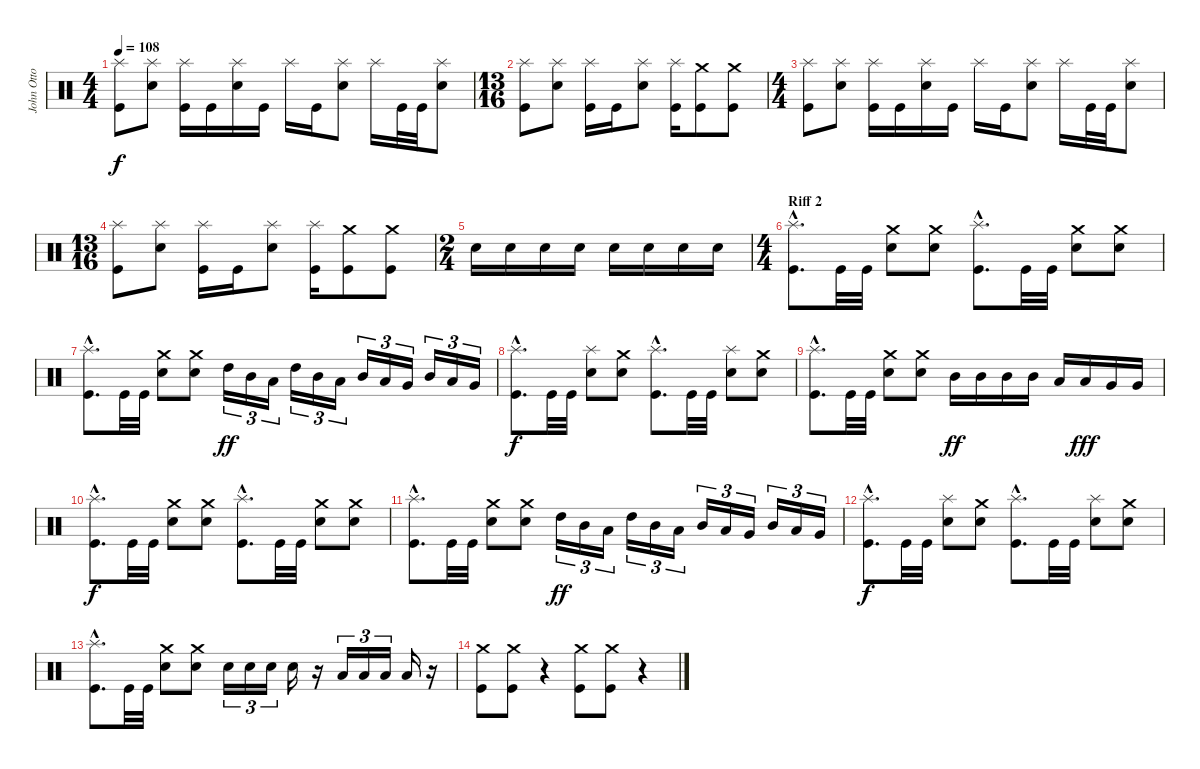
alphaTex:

\track ("John Otto" "John Otto") {instrument percussion}
\staff {score}
\articulation defaults
\ts (4 4)
\tempo 108
\clef neutral
\ks c
("Splash (hit)" "Kick (hit)").8{dy f} ("Splash (hit)" "Electric Snare (hit)").8 ("Splash (hit)" "Kick (hit)").16 "Kick (hit)".16 ("Splash (hit)" "Electric Snare (hit)").16 "Kick (hit)".16 "Splash (hit)".16 "Kick (hit)".16 ("Splash (hit)" "Electric Snare (hit)").8 "Splash (hit)".16 "Kick (hit)".32 "Kick (hit)".32 ("Splash (hit)" "Electric Snare (hit)").8 |
\ts (13 16)
("Splash (hit)" "Kick (hit)").8 ("Splash (hit)" "Electric Snare (hit)").8 ("Splash (hit)" "Kick (hit)").16 "Kick (hit)".16 ("Splash (hit)" "Electric Snare (hit)").8 ("Splash (hit)" "Kick (hit)").16 ("Crash medium (hit)" "Kick (hit)").8 ("Crash medium (hit)" "Kick (hit)").8 |
\ts (4 4)
("Splash (hit)" "Kick (hit)").8 ("Splash (hit)" "Electric Snare (hit)").8 ("Splash (hit)" "Kick (hit)").16 "Kick (hit)".16 ("Splash (hit)" "Electric Snare (hit)").16 "Kick (hit)".16 "Splash (hit)".16 "Kick (hit)".16 ("Splash (hit)" "Electric Snare (hit)").8 "Splash (hit)".16 "Kick (hit)".32 "Kick (hit)".32 ("Splash (hit)" "Electric Snare (hit)").8 |
\ts (13 16)
("Splash (hit)" "Kick (hit)").8 ("Splash (hit)" "Electric Snare (hit)").8 ("Splash (hit)" "Kick (hit)").16 "Kick (hit)".16 ("Splash (hit)" "Electric Snare (hit)").8 ("Splash (hit)" "Kick (hit)").16 ("Crash medium (hit)" "Kick (hit)").8 ("Crash medium (hit)" "Kick (hit)").8 |
\ts (2 4)
"Electric Snare (hit)".16 "Electric Snare (hit)".16 "Electric Snare (hit)".16 "Electric Snare (hit)".16 "Electric Snare (hit)".16 "Electric Snare (hit)".16 "Electric Snare (hit)".16 "Electric Snare (hit)".16 |
\ts (4 4)
\section ("" "Riff 2")
("Splash (hit)"{hac} "Kick (hit)"{hac}).8{d} "Kick (hit)".32 "Kick (hit)".32 ("Crash medium (hit)" "Electric Snare (hit)").8 ("Crash medium (hit)" "Electric Snare (hit)").8 ("Splash (hit)"{hac} "Kick (hit)"{hac}).8{d} "Kick (hit)".32 "Kick (hit)".32 ("Crash medium (hit)" "Electric Snare (hit)").8 ("Crash medium (hit)" "Electric Snare (hit)").8 |
("Splash (hit)"{hac} "Kick (hit)"{hac}).8{d} "Kick (hit)".32 "Kick (hit)".32 ("Crash medium (hit)" "Electric Snare (hit)").8 ("Crash medium (hit)" "Electric Snare (hit)").8 "High Tom (hit)".16{tu (3 2) dy ff} "Mid Tom (hit)".16{tu (3 2)} "Low Tom (hit)".16{tu (3 2)} "High Tom (hit)".16{tu (3 2)} "Mid Tom (hit)".16{tu (3 2)} "Low Tom (hit)".16{tu (3 2)} "Mid Tom (hit)".16{tu (3 2)} "Low Tom (hit)".16{tu (3 2)} "Very Low Tom (hit)".16{tu (3 2)} "Mid Tom (hit)".16{tu (3 2)} "Low Tom (hit)".16{tu (3 2)} "Very Low Tom (hit)".16{tu (3 2)} |
("Splash (hit)"{hac} "Kick (hit)"{hac}).8{d dy f} "Kick (hit)".32 "Kick (hit)".32 ("Splash (hit)" "Electric Snare (hit)").8 ("Crash medium (hit)" "Electric Snare (hit)").8 ("Splash (hit)"{hac} "Kick (hit)"{hac}).8{d} "Kick (hit)".32 "Kick (hit)".32 ("Splash (hit)" "Electric Snare (hit)").8 ("Crash medium (hit)" "Electric Snare (hit)").8 |
("Splash (hit)"{hac} "Kick (hit)"{hac}).8{d} "Kick (hit)".32 "Kick (hit)".32 ("Crash medium (hit)" "Electric Snare (hit)").8 ("Crash medium (hit)" "Electric Snare (hit)").8 "Mid Tom (hit)".16{dy ff} "Mid Tom (hit)".16 "Mid Tom (hit)".16 "Mid Tom (hit)".16 "Low Tom (hit)".16 "Low Tom (hit)".16{dy fff} "Very Low Tom (hit)".16 "Very Low Tom (hit)".16 |
("Splash (hit)"{hac} "Kick (hit)"{hac}).8{d dy f} "Kick (hit)".32 "Kick (hit)".32 ("Crash medium (hit)" "Electric Snare (hit)").8 ("Crash medium (hit)" "Electric Snare (hit)").8 ("Splash (hit)"{hac} "Kick (hit)"{hac}).8{d} "Kick (hit)".32 "Kick (hit)".32 ("Crash medium (hit)" "Electric Snare (hit)").8 ("Crash medium (hit)" "Electric Snare (hit)").8 |
("Splash (hit)"{hac} "Kick (hit)"{hac}).8{d} "Kick (hit)".32 "Kick (hit)".32 ("Crash medium (hit)" "Electric Snare (hit)").8 ("Crash medium (hit)" "Electric Snare (hit)").8 "High Tom (hit)".16{tu (3 2) dy ff} "Mid Tom (hit)".16{tu (3 2)} "Low Tom (hit)".16{tu (3 2)} "High Tom (hit)".16{tu (3 2)} "Mid Tom (hit)".16{tu (3 2)} "Low Tom (hit)".16{tu (3 2)} "Mid Tom (hit)".16{tu (3 2)} "Low Tom (hit)".16{tu (3 2)} "Very Low Tom (hit)".16{tu (3 2)} "Mid Tom (hit)".16{tu (3 2)} "Low Tom (hit)".16{tu (3 2)} "Very Low Tom (hit)".16{tu (3 2)} |
("Splash (hit)"{hac} "Kick (hit)"{hac}).8{d dy f} "Kick (hit)".32 "Kick (hit)".32 ("Splash (hit)" "Electric Snare (hit)").8 ("Crash medium (hit)" "Electric Snare (hit)").8 ("Splash (hit)"{hac} "Kick (hit)"{hac}).8{d} "Kick (hit)".32 "Kick (hit)".32 ("Splash (hit)" "Electric Snare (hit)").8 ("Crash medium (hit)" "Electric Snare (hit)").8 |
("Splash (hit)"{hac} "Kick (hit)"{hac}).8{d} "Kick (hit)".32 "Kick (hit)".32 ("Crash medium (hit)" "Electric Snare (hit)").8 ("Crash medium (hit)" "Electric Snare (hit)").8 "Electric Snare (hit)".16{tu (3 2)} "Electric Snare (hit)".16{tu (3 2)} "Electric Snare (hit)".16{tu (3 2)} "Electric Snare (hit)".16 r.16 "Low Tom (hit)".16{tu (3 2)} "Low Tom (hit)".16{tu (3 2)} "Low Tom (hit)".16{tu (3 2)} "Low Tom (hit)".16 r.16 |
("Crash medium (hit)" "Kick (hit)").8 ("Crash medium (hit)" "Kick (hit)").8 r.4 ("Crash medium (hit)" "Kick (hit)").8 ("Crash medium (hit)" "Kick (hit)").8 r.4
